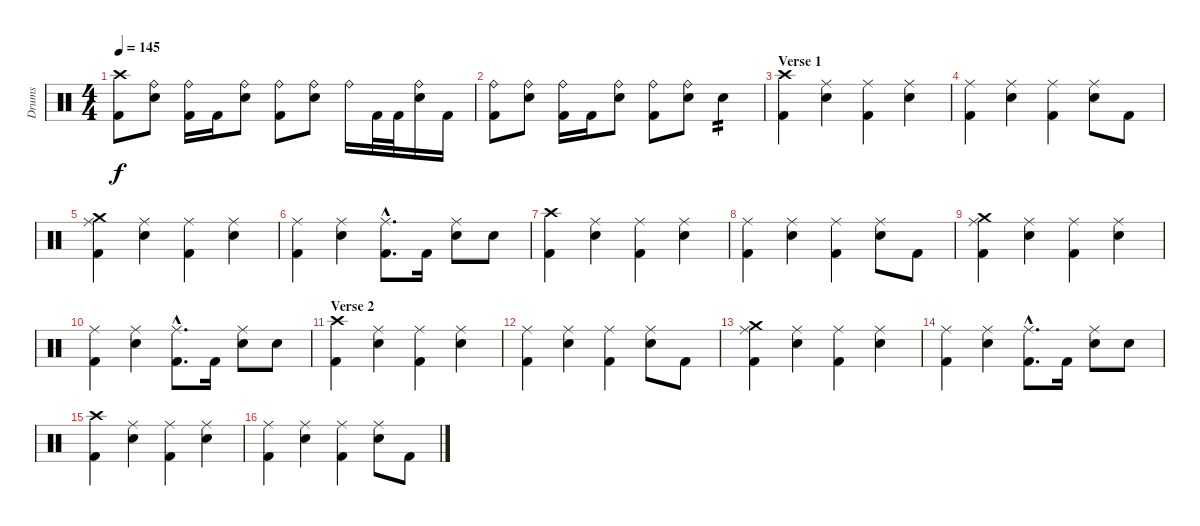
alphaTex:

\track ("Drums" "Drums") {instrument percussion}
\staff {score}
\articulation defaults
\ts (4 4)
\tempo 145
\clef neutral
\ks c
("Crash high (hit)" "Kick (hit) 2").8{dy f} ("Ride (bell)" "Electric Snare (hit)").8 ("Ride (bell)" "Kick (hit) 2").16 "Kick (hit) 2".16 ("Ride (bell)" "Electric Snare (hit)").8 ("Ride (bell)" "Kick (hit) 2").8 ("Ride (bell)" "Electric Snare (hit)").8 "Ride (bell)".16 "Kick (hit) 2".32 "Kick (hit) 2".32 ("Ride (bell)" "Electric Snare (hit)").16 "Kick (hit) 2".16 |
("Ride (bell)" "Kick (hit) 2").8 ("Ride (bell)" "Electric Snare (hit)").8 ("Ride (bell)" "Kick (hit) 2").16 "Kick (hit) 2".16 ("Ride (bell)" "Electric Snare (hit)").8 ("Ride (bell)" "Kick (hit) 2").8 ("Ride (bell)" "Electric Snare (hit)").8 "Electric Snare (hit)".4{tp 2} |
\section ("" "Verse 1")
("Crash high (hit)" "Kick (hit) 2").4 ("Ride (middle)" "Electric Snare (hit)").4 ("Ride (middle)" "Kick (hit) 2").4 ("Ride (middle)" "Electric Snare (hit)").4 |
("Ride (middle)" "Kick (hit) 2").4 ("Ride (middle)" "Electric Snare (hit)").4 ("Ride (middle)" "Kick (hit) 2").4 ("Ride (middle)" "Electric Snare (hit)").8 "Kick (hit) 2".8 |
("Crash medium (hit)" "Ride (middle)" "Kick (hit) 2").4 ("Ride (middle)" "Electric Snare (hit)").4 ("Ride (middle)" "Kick (hit) 2").4 ("Ride (middle)" "Electric Snare (hit)").4 |
("Ride (middle)" "Kick (hit) 2").4 ("Ride (middle)" "Electric Snare (hit)").4 ("Ride (middle)"{hac} "Kick (hit) 2"{hac}).8{d} "Kick (hit) 2".16 ("Ride (middle)" "Electric Snare (hit)").8 "Electric Snare (hit)".8 |
("Crash high (hit)" "Kick (hit) 2").4 ("Ride (middle)" "Electric Snare (hit)").4 ("Ride (middle)" "Kick (hit) 2").4 ("Ride (middle)" "Electric Snare (hit)").4 |
("Ride (middle)" "Kick (hit) 2").4 ("Ride (middle)" "Electric Snare (hit)").4 ("Ride (middle)" "Kick (hit) 2").4 ("Ride (middle)" "Electric Snare (hit)").8 "Kick (hit) 2".8 |
("Crash medium (hit)" "Ride (middle)" "Kick (hit) 2").4 ("Ride (middle)" "Electric Snare (hit)").4 ("Ride (middle)" "Kick (hit) 2").4 ("Ride (middle)" "Electric Snare (hit)").4 |
("Ride (middle)" "Kick (hit) 2").4 ("Ride (middle)" "Electric Snare (hit)").4 ("Ride (middle)"{hac} "Kick (hit) 2"{hac}).8{d} "Kick (hit) 2".16 ("Ride (middle)" "Electric Snare (hit)").8 "Electric Snare (hit)".8 |
\section ("" "Verse 2")
("Crash high (hit)" "Kick (hit) 2").4 ("Ride (middle)" "Electric Snare (hit)").4 ("Ride (middle)" "Kick (hit) 2").4 ("Ride (middle)" "Electric Snare (hit)").4 |
("Ride (middle)" "Kick (hit) 2").4 ("Ride (middle)" "Electric Snare (hit)").4 ("Ride (middle)" "Kick (hit) 2").4 ("Ride (middle)" "Electric Snare (hit)").8 "Kick (hit) 2".8 |
("Crash medium (hit)" "Ride (middle)" "Kick (hit) 2").4 ("Ride (middle)" "Electric Snare (hit)").4 ("Ride (middle)" "Kick (hit) 2").4 ("Ride (middle)" "Electric Snare (hit)").4 |
("Ride (middle)" "Kick (hit) 2").4 ("Ride (middle)" "Electric Snare (hit)").4 ("Ride (middle)"{hac} "Kick (hit) 2"{hac}).8{d} "Kick (hit) 2".16 ("Ride (middle)" "Electric Snare (hit)").8 "Electric Snare (hit)".8 |
("Crash high (hit)" "Kick (hit) 2").4 ("Ride (middle)" "Electric Snare (hit)").4 ("Ride (middle)" "Kick (hit) 2").4 ("Ride (middle)" "Electric Snare (hit)").4 |
("Ride (middle)" "Kick (hit) 2").4 ("Ride (middle)" "Electric Snare (hit)").4 ("Ride (middle)" "Kick (hit) 2").4 ("Ride (middle)" "Electric Snare (hit)").8 "Kick (hit) 2".8
